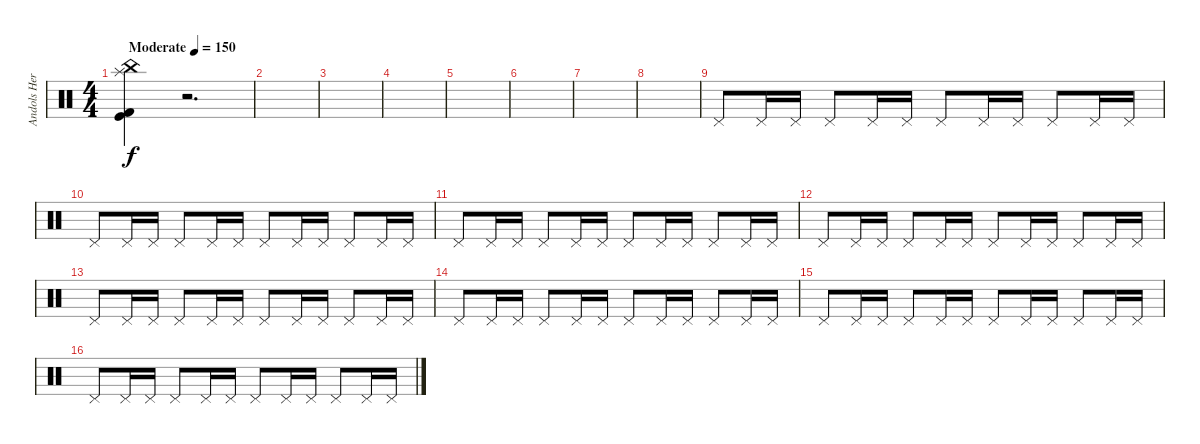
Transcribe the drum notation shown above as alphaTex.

\track ("Andols Herrick" "Andols Her") {instrument percussion}
\staff {score}
\articulation defaults
\ts (4 4)
\tempo (150 "Moderate")
\clef neutral
\ks c
("China (hit)" "Splash (hit)" "Kick (hit)" "Kick (hit) 2").4{dy f} r.2{d} |
|
|
|
|
|
|
|
"Pedal Hi-Hat (hit)".8 "Pedal Hi-Hat (hit)".16 "Pedal Hi-Hat (hit)".16 "Pedal Hi-Hat (hit)".8 "Pedal Hi-Hat (hit)".16 "Pedal Hi-Hat (hit)".16 "Pedal Hi-Hat (hit)".8 "Pedal Hi-Hat (hit)".16 "Pedal Hi-Hat (hit)".16 "Pedal Hi-Hat (hit)".8 "Pedal Hi-Hat (hit)".16 "Pedal Hi-Hat (hit)".16 |
"Pedal Hi-Hat (hit)".8 "Pedal Hi-Hat (hit)".16 "Pedal Hi-Hat (hit)".16 "Pedal Hi-Hat (hit)".8 "Pedal Hi-Hat (hit)".16 "Pedal Hi-Hat (hit)".16 "Pedal Hi-Hat (hit)".8 "Pedal Hi-Hat (hit)".16 "Pedal Hi-Hat (hit)".16 "Pedal Hi-Hat (hit)".8 "Pedal Hi-Hat (hit)".16 "Pedal Hi-Hat (hit)".16 |
"Pedal Hi-Hat (hit)".8 "Pedal Hi-Hat (hit)".16 "Pedal Hi-Hat (hit)".16 "Pedal Hi-Hat (hit)".8 "Pedal Hi-Hat (hit)".16 "Pedal Hi-Hat (hit)".16 "Pedal Hi-Hat (hit)".8 "Pedal Hi-Hat (hit)".16 "Pedal Hi-Hat (hit)".16 "Pedal Hi-Hat (hit)".8 "Pedal Hi-Hat (hit)".16 "Pedal Hi-Hat (hit)".16 |
"Pedal Hi-Hat (hit)".8 "Pedal Hi-Hat (hit)".16 "Pedal Hi-Hat (hit)".16 "Pedal Hi-Hat (hit)".8 "Pedal Hi-Hat (hit)".16 "Pedal Hi-Hat (hit)".16 "Pedal Hi-Hat (hit)".8 "Pedal Hi-Hat (hit)".16 "Pedal Hi-Hat (hit)".16 "Pedal Hi-Hat (hit)".8 "Pedal Hi-Hat (hit)".16 "Pedal Hi-Hat (hit)".16 |
"Pedal Hi-Hat (hit)".8 "Pedal Hi-Hat (hit)".16 "Pedal Hi-Hat (hit)".16 "Pedal Hi-Hat (hit)".8 "Pedal Hi-Hat (hit)".16 "Pedal Hi-Hat (hit)".16 "Pedal Hi-Hat (hit)".8 "Pedal Hi-Hat (hit)".16 "Pedal Hi-Hat (hit)".16 "Pedal Hi-Hat (hit)".8 "Pedal Hi-Hat (hit)".16 "Pedal Hi-Hat (hit)".16 |
"Pedal Hi-Hat (hit)".8 "Pedal Hi-Hat (hit)".16 "Pedal Hi-Hat (hit)".16 "Pedal Hi-Hat (hit)".8 "Pedal Hi-Hat (hit)".16 "Pedal Hi-Hat (hit)".16 "Pedal Hi-Hat (hit)".8 "Pedal Hi-Hat (hit)".16 "Pedal Hi-Hat (hit)".16 "Pedal Hi-Hat (hit)".8 "Pedal Hi-Hat (hit)".16 "Pedal Hi-Hat (hit)".16 |
"Pedal Hi-Hat (hit)".8 "Pedal Hi-Hat (hit)".16 "Pedal Hi-Hat (hit)".16 "Pedal Hi-Hat (hit)".8 "Pedal Hi-Hat (hit)".16 "Pedal Hi-Hat (hit)".16 "Pedal Hi-Hat (hit)".8 "Pedal Hi-Hat (hit)".16 "Pedal Hi-Hat (hit)".16 "Pedal Hi-Hat (hit)".8 "Pedal Hi-Hat (hit)".16 "Pedal Hi-Hat (hit)".16 |
"Pedal Hi-Hat (hit)".8 "Pedal Hi-Hat (hit)".16 "Pedal Hi-Hat (hit)".16 "Pedal Hi-Hat (hit)".8 "Pedal Hi-Hat (hit)".16 "Pedal Hi-Hat (hit)".16 "Pedal Hi-Hat (hit)".8 "Pedal Hi-Hat (hit)".16 "Pedal Hi-Hat (hit)".16 "Pedal Hi-Hat (hit)".8 "Pedal Hi-Hat (hit)".16 "Pedal Hi-Hat (hit)".16
